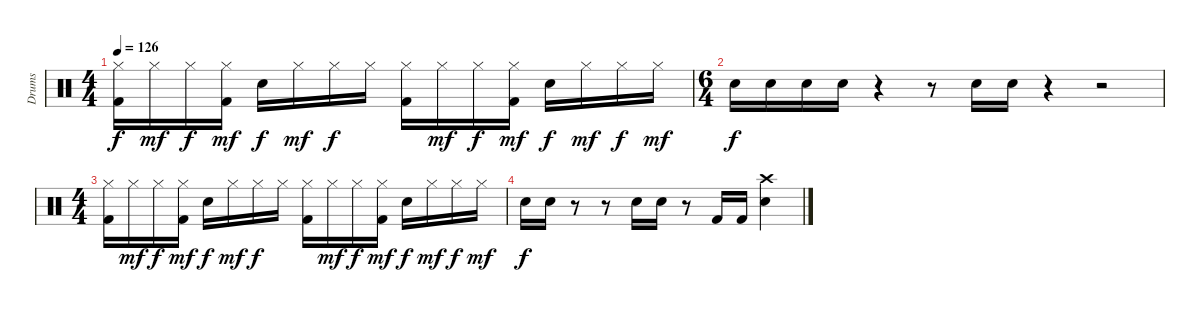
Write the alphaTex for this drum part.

\track ("Drums" "Drums") {instrument percussion}
\staff {score}
\articulation defaults
\ts (4 4)
\tempo 126
\clef neutral
\ks c
("Hi-Hat (closed)" "Kick (hit) 2").16{dy f} "Hi-Hat (closed)".16{dy mf} "Hi-Hat (closed)".16{dy f} ("Hi-Hat (closed)" "Kick (hit) 2").16{dy mf} "Snare (hit) 2".16{dy f} "Hi-Hat (closed)".16{dy mf} "Hi-Hat (closed)".16{dy f} "Hi-Hat (closed)".16 ("Hi-Hat (closed)" "Kick (hit) 2").16 "Hi-Hat (closed)".16{dy mf} "Hi-Hat (closed)".16{dy f} ("Hi-Hat (closed)" "Kick (hit) 2").16{dy mf} "Snare (hit) 2".16{dy f} "Hi-Hat (closed)".16{dy mf} "Hi-Hat (closed)".16{dy f} "Hi-Hat (closed)".16{dy mf} |
\ts (6 4)
"Snare (hit) 2".16{dy f} "Snare (hit) 2".16 "Snare (hit) 2".16 "Snare (hit) 2".16 r.4 r.8 "Snare (hit) 2".16 "Snare (hit) 2".16 r.4 r.2 |
\ts (4 4)
("Hi-Hat (closed)" "Kick (hit) 2").16 "Hi-Hat (closed)".16{dy mf} "Hi-Hat (closed)".16{dy f} ("Hi-Hat (closed)" "Kick (hit) 2").16{dy mf} "Snare (hit) 2".16{dy f} "Hi-Hat (closed)".16{dy mf} "Hi-Hat (closed)".16{dy f} "Hi-Hat (closed)".16 ("Hi-Hat (closed)" "Kick (hit) 2").16 "Hi-Hat (closed)".16{dy mf} "Hi-Hat (closed)".16{dy f} ("Hi-Hat (closed)" "Kick (hit) 2").16{dy mf} "Snare (hit) 2".16{dy f} "Hi-Hat (closed)".16{dy mf} "Hi-Hat (closed)".16{dy f} "Hi-Hat (closed)".16{dy mf} |
"Snare (hit) 2".16{dy f} "Snare (hit) 2".16 r.8 r.8 "Snare (hit) 2".16 "Snare (hit) 2".16 r.8 "Kick (hit) 2".16 "Kick (hit) 2".16 ("Crash high (hit)" "Snare (hit) 2").4
